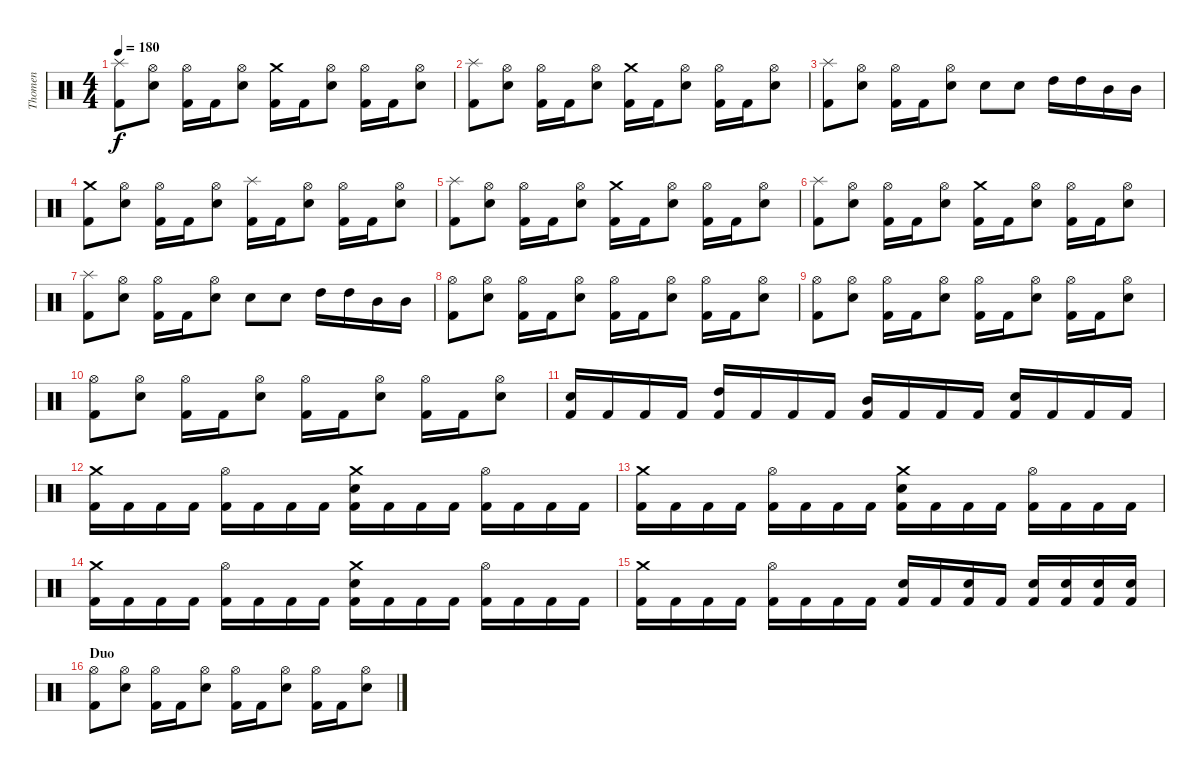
\track ("Thomen" "Thomen") {instrument percussion}
\staff {score}
\articulation defaults
\ts (4 4)
\tempo 180
\clef neutral
\ks c
("Splash (hit)" "Kick (hit) 2").8{dy f} ("Hi-Hat (open)" "Electric Snare (hit)").8 ("Hi-Hat (open)" "Kick (hit) 2").16 "Kick (hit) 2".16 ("Hi-Hat (open)" "Electric Snare (hit)").8 ("Crash medium (hit)" "Kick (hit) 2").16 "Kick (hit) 2".16 ("Hi-Hat (open)" "Electric Snare (hit)").8 ("Hi-Hat (open)" "Kick (hit) 2").16 "Kick (hit) 2".16 ("Hi-Hat (open)" "Electric Snare (hit)").8 |
("Splash (hit)" "Kick (hit) 2").8 ("Hi-Hat (open)" "Electric Snare (hit)").8 ("Hi-Hat (open)" "Kick (hit) 2").16 "Kick (hit) 2".16 ("Hi-Hat (open)" "Electric Snare (hit)").8 ("Crash medium (hit)" "Kick (hit) 2").16 "Kick (hit) 2".16 ("Hi-Hat (open)" "Electric Snare (hit)").8 ("Hi-Hat (open)" "Kick (hit) 2").16 "Kick (hit) 2".16 ("Hi-Hat (open)" "Electric Snare (hit)").8 |
("Splash (hit)" "Kick (hit) 2").8 ("Hi-Hat (open)" "Electric Snare (hit)").8 ("Hi-Hat (open)" "Kick (hit) 2").16 "Kick (hit) 2".16 ("Hi-Hat (open)" "Electric Snare (hit)").8 "Electric Snare (hit)".8 "Electric Snare (hit)".8 "High Tom (hit)".16 "High Tom (hit)".16 "Mid Tom (hit)".16 "Mid Tom (hit)".16 |
("Crash medium (hit)" "Kick (hit) 2").8 ("Hi-Hat (open)" "Electric Snare (hit)").8 ("Hi-Hat (open)" "Kick (hit) 2").16 "Kick (hit) 2".16 ("Hi-Hat (open)" "Electric Snare (hit)").8 ("Splash (hit)" "Kick (hit) 2").16 "Kick (hit) 2".16 ("Hi-Hat (open)" "Electric Snare (hit)").8 ("Hi-Hat (open)" "Kick (hit) 2").16 "Kick (hit) 2".16 ("Hi-Hat (open)" "Electric Snare (hit)").8 |
("Splash (hit)" "Kick (hit) 2").8 ("Hi-Hat (open)" "Electric Snare (hit)").8 ("Hi-Hat (open)" "Kick (hit) 2").16 "Kick (hit) 2".16 ("Hi-Hat (open)" "Electric Snare (hit)").8 ("Crash medium (hit)" "Kick (hit) 2").16 "Kick (hit) 2".16 ("Hi-Hat (open)" "Electric Snare (hit)").8 ("Hi-Hat (open)" "Kick (hit) 2").16 "Kick (hit) 2".16 ("Hi-Hat (open)" "Electric Snare (hit)").8 |
("Splash (hit)" "Kick (hit) 2").8 ("Hi-Hat (open)" "Electric Snare (hit)").8 ("Hi-Hat (open)" "Kick (hit) 2").16 "Kick (hit) 2".16 ("Hi-Hat (open)" "Electric Snare (hit)").8 ("Crash medium (hit)" "Kick (hit) 2").16 "Kick (hit) 2".16 ("Hi-Hat (open)" "Electric Snare (hit)").8 ("Hi-Hat (open)" "Kick (hit) 2").16 "Kick (hit) 2".16 ("Hi-Hat (open)" "Electric Snare (hit)").8 |
("Splash (hit)" "Kick (hit) 2").8 ("Hi-Hat (open)" "Electric Snare (hit)").8 ("Hi-Hat (open)" "Kick (hit) 2").16 "Kick (hit) 2".16 ("Hi-Hat (open)" "Electric Snare (hit)").8 "Electric Snare (hit)".8 "Electric Snare (hit)".8 "High Tom (hit)".16 "High Tom (hit)".16 "Mid Tom (hit)".16 "Mid Tom (hit)".16 |
("Hi-Hat (open)" "Kick (hit) 2").8 ("Hi-Hat (open)" "Electric Snare (hit)").8 ("Hi-Hat (open)" "Kick (hit) 2").16 "Kick (hit) 2".16 ("Hi-Hat (open)" "Electric Snare (hit)").8 ("Hi-Hat (open)" "Kick (hit) 2").16 "Kick (hit) 2".16 ("Hi-Hat (open)" "Electric Snare (hit)").8 ("Hi-Hat (open)" "Kick (hit) 2").16 "Kick (hit) 2".16 ("Hi-Hat (open)" "Electric Snare (hit)").8 |
("Hi-Hat (open)" "Kick (hit) 2").8 ("Hi-Hat (open)" "Electric Snare (hit)").8 ("Hi-Hat (open)" "Kick (hit) 2").16 "Kick (hit) 2".16 ("Hi-Hat (open)" "Electric Snare (hit)").8 ("Hi-Hat (open)" "Kick (hit) 2").16 "Kick (hit) 2".16 ("Hi-Hat (open)" "Electric Snare (hit)").8 ("Hi-Hat (open)" "Kick (hit) 2").16 "Kick (hit) 2".16 ("Hi-Hat (open)" "Electric Snare (hit)").8 |
("Hi-Hat (open)" "Kick (hit) 2").8 ("Hi-Hat (open)" "Electric Snare (hit)").8 ("Hi-Hat (open)" "Kick (hit) 2").16 "Kick (hit) 2".16 ("Hi-Hat (open)" "Electric Snare (hit)").8 ("Hi-Hat (open)" "Kick (hit) 2").16 "Kick (hit) 2".16 ("Hi-Hat (open)" "Electric Snare (hit)").8 ("Hi-Hat (open)" "Kick (hit) 2").16 "Kick (hit) 2".16 ("Hi-Hat (open)" "Electric Snare (hit)").8 |
("Electric Snare (hit)" "Kick (hit) 2").16 "Kick (hit) 2".16 "Kick (hit) 2".16 "Kick (hit) 2".16 ("High Tom (hit)" "Kick (hit) 2").16 "Kick (hit) 2".16 "Kick (hit) 2".16 "Kick (hit) 2".16 ("Mid Tom (hit)" "Kick (hit) 2").16 "Kick (hit) 2".16 "Kick (hit) 2".16 "Kick (hit) 2".16 ("Electric Snare (hit)" "Kick (hit) 2").16 "Kick (hit) 2".16 "Kick (hit) 2".16 "Kick (hit) 2".16 |
("Crash medium (hit)" "Kick (hit) 2").16 "Kick (hit) 2".16 "Kick (hit) 2".16 "Kick (hit) 2".16 ("Hi-Hat (open)" "Kick (hit) 2").16 "Kick (hit) 2".16 "Kick (hit) 2".16 "Kick (hit) 2".16 ("Crash medium (hit)" "Electric Snare (hit)" "Kick (hit) 2").16 "Kick (hit) 2".16 "Kick (hit) 2".16 "Kick (hit) 2".16 ("Hi-Hat (open)" "Kick (hit) 2").16 "Kick (hit) 2".16 "Kick (hit) 2".16 "Kick (hit) 2".16 |
("Crash medium (hit)" "Kick (hit) 2").16 "Kick (hit) 2".16 "Kick (hit) 2".16 "Kick (hit) 2".16 ("Hi-Hat (open)" "Kick (hit) 2").16 "Kick (hit) 2".16 "Kick (hit) 2".16 "Kick (hit) 2".16 ("Crash medium (hit)" "Electric Snare (hit)" "Kick (hit) 2").16 "Kick (hit) 2".16 "Kick (hit) 2".16 "Kick (hit) 2".16 ("Hi-Hat (open)" "Kick (hit) 2").16 "Kick (hit) 2".16 "Kick (hit) 2".16 "Kick (hit) 2".16 |
("Crash medium (hit)" "Kick (hit) 2").16 "Kick (hit) 2".16 "Kick (hit) 2".16 "Kick (hit) 2".16 ("Hi-Hat (open)" "Kick (hit) 2").16 "Kick (hit) 2".16 "Kick (hit) 2".16 "Kick (hit) 2".16 ("Crash medium (hit)" "Electric Snare (hit)" "Kick (hit) 2").16 "Kick (hit) 2".16 "Kick (hit) 2".16 "Kick (hit) 2".16 ("Hi-Hat (open)" "Kick (hit) 2").16 "Kick (hit) 2".16 "Kick (hit) 2".16 "Kick (hit) 2".16 |
("Crash medium (hit)" "Kick (hit) 2").16 "Kick (hit) 2".16 "Kick (hit) 2".16 "Kick (hit) 2".16 ("Hi-Hat (open)" "Kick (hit) 2").16 "Kick (hit) 2".16 "Kick (hit) 2".16 "Kick (hit) 2".16 ("Electric Snare (hit)" "Kick (hit) 2").16 "Kick (hit) 2".16 ("Electric Snare (hit)" "Kick (hit) 2").16 "Kick (hit) 2".16 ("Electric Snare (hit)" "Kick (hit) 2").16 ("Electric Snare (hit)" "Kick (hit) 2").16 ("Electric Snare (hit)" "Kick (hit) 2").16 ("Electric Snare (hit)" "Kick (hit) 2").16 |
\section ("" "Duo")
("Hi-Hat (open)" "Kick (hit) 2").8 ("Hi-Hat (open)" "Electric Snare (hit)").8 ("Hi-Hat (open)" "Kick (hit) 2").16 "Kick (hit) 2".16 ("Hi-Hat (open)" "Electric Snare (hit)").8 ("Hi-Hat (open)" "Kick (hit) 2").16 "Kick (hit) 2".16 ("Hi-Hat (open)" "Electric Snare (hit)").8 ("Hi-Hat (open)" "Kick (hit) 2").16 "Kick (hit) 2".16 ("Hi-Hat (open)" "Electric Snare (hit)").8
